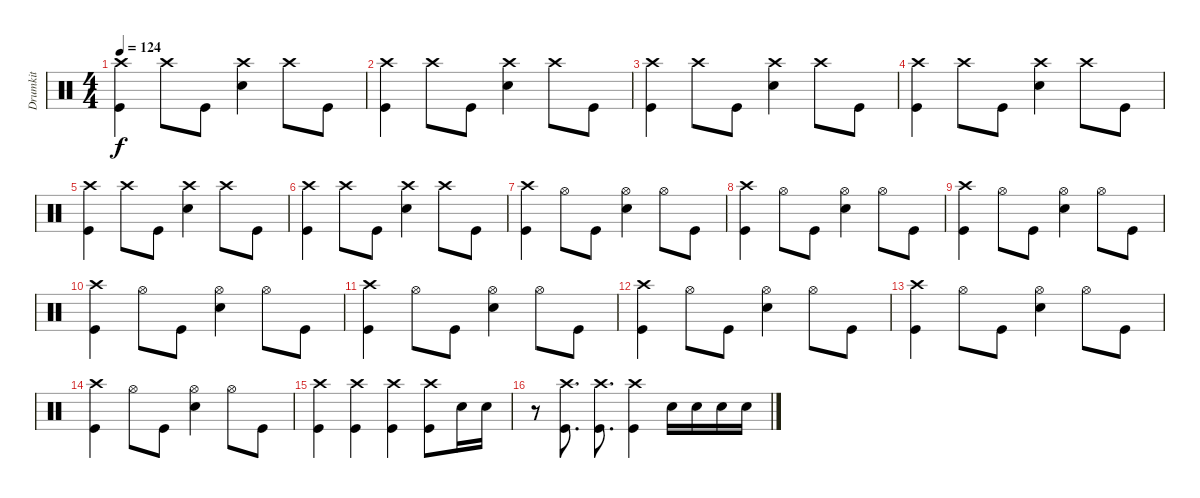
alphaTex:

\track ("Drumkit" "Drumkit") {instrument percussion}
\staff {score}
\articulation defaults
\ts (4 4)
\tempo 124
\clef neutral
\ks c
("Kick (hit)" "Crash high (hit)").4{dy f} "Crash high (hit)".8 "Kick (hit)".8 ("Snare (hit) 2" "Crash high (hit)").4 "Crash high (hit)".8 "Kick (hit)".8 |
("Kick (hit)" "Crash high (hit)").4 "Crash high (hit)".8 "Kick (hit)".8 ("Snare (hit) 2" "Crash high (hit)").4 "Crash high (hit)".8 "Kick (hit)".8 |
("Kick (hit)" "Crash high (hit)").4 "Crash high (hit)".8 "Kick (hit)".8 ("Snare (hit) 2" "Crash high (hit)").4 "Crash high (hit)".8 "Kick (hit)".8 |
("Kick (hit)" "Crash high (hit)").4 "Crash high (hit)".8 "Kick (hit)".8 ("Snare (hit) 2" "Crash high (hit)").4 "Crash high (hit)".8 "Kick (hit)".8 |
("Kick (hit)" "Crash high (hit)").4 "Crash high (hit)".8 "Kick (hit)".8 ("Snare (hit) 2" "Crash high (hit)").4 "Crash high (hit)".8 "Kick (hit)".8 |
("Kick (hit)" "Crash high (hit)").4 "Crash high (hit)".8 "Kick (hit)".8 ("Snare (hit) 2" "Crash high (hit)").4 "Crash high (hit)".8 "Kick (hit)".8 |
("Kick (hit)" "Crash high (hit)").4 "Hi-Hat (open)".8 "Kick (hit)".8 ("Snare (hit) 2" "Hi-Hat (open)").4 "Hi-Hat (open)".8 "Kick (hit)".8 |
("Kick (hit)" "Crash high (hit)").4 "Hi-Hat (open)".8 "Kick (hit)".8 ("Snare (hit) 2" "Hi-Hat (open)").4 "Hi-Hat (open)".8 "Kick (hit)".8 |
("Kick (hit)" "Crash high (hit)").4 "Hi-Hat (open)".8 "Kick (hit)".8 ("Snare (hit) 2" "Hi-Hat (open)").4 "Hi-Hat (open)".8 "Kick (hit)".8 |
("Kick (hit)" "Crash high (hit)").4 "Hi-Hat (open)".8 "Kick (hit)".8 ("Snare (hit) 2" "Hi-Hat (open)").4 "Hi-Hat (open)".8 "Kick (hit)".8 |
("Kick (hit)" "Crash high (hit)").4 "Hi-Hat (open)".8 "Kick (hit)".8 ("Snare (hit) 2" "Hi-Hat (open)").4 "Hi-Hat (open)".8 "Kick (hit)".8 |
("Kick (hit)" "Crash high (hit)").4 "Hi-Hat (open)".8 "Kick (hit)".8 ("Snare (hit) 2" "Hi-Hat (open)").4 "Hi-Hat (open)".8 "Kick (hit)".8 |
("Kick (hit)" "Crash high (hit)").4 "Hi-Hat (open)".8 "Kick (hit)".8 ("Snare (hit) 2" "Hi-Hat (open)").4 "Hi-Hat (open)".8 "Kick (hit)".8 |
("Kick (hit)" "Crash high (hit)").4 "Hi-Hat (open)".8 "Kick (hit)".8 ("Snare (hit) 2" "Hi-Hat (open)").4 "Hi-Hat (open)".8 "Kick (hit)".8 |
("Crash high (hit)" "Kick (hit)").4 ("Crash high (hit)" "Kick (hit)").4 ("Crash high (hit)" "Kick (hit)").4 ("Crash high (hit)" "Kick (hit)").8 "Snare (hit) 2".16 "Snare (hit) 2".16 |
r.8 ("Crash high (hit)" "Kick (hit)").8{d} ("Crash high (hit)" "Kick (hit)").8{d} ("Crash high (hit)" "Kick (hit)").4 "Snare (hit) 2".16 "Snare (hit) 2".16 "Snare (hit) 2".16 "Snare (hit) 2".16
